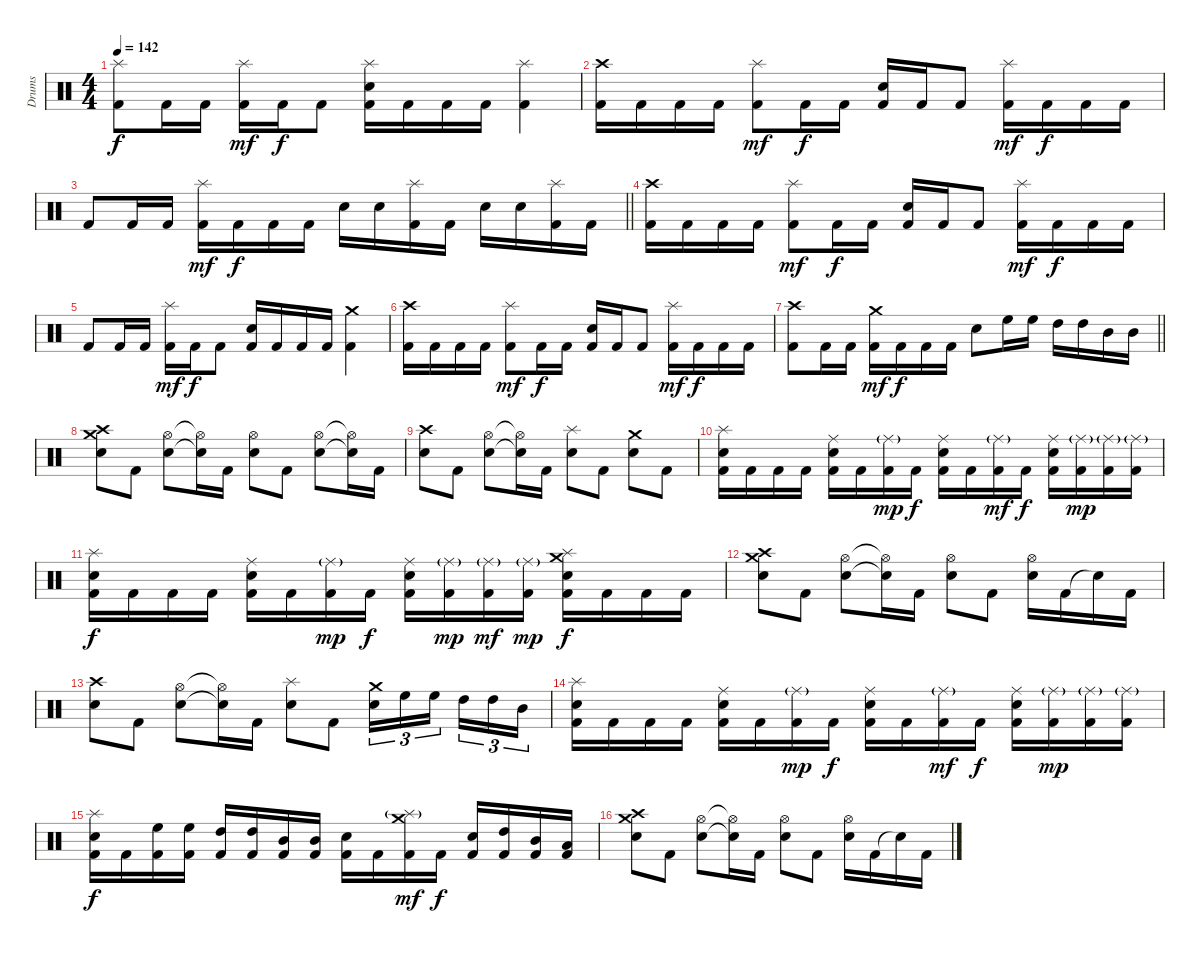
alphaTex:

\track ("Drums" "Drums") {instrument percussion}
\staff {score}
\articulation defaults
\ts (4 4)
\tempo 142
\clef neutral
\ks c
("Splash (hit)" "Kick (hit) 2").8{dy f} "Kick (hit) 2".16 "Kick (hit) 2".16 ("Splash (hit)" "Kick (hit) 2").16{dy mf} "Kick (hit) 2".16{dy f} "Kick (hit) 2".8 ("Splash (hit)" "Electric Snare (hit)" "Kick (hit) 2").16 "Kick (hit) 2".16 "Kick (hit) 2".16 "Kick (hit) 2".16 ("Splash (hit)" "Kick (hit) 2").4 |
("Crash high (hit)" "Kick (hit) 2").16 "Kick (hit) 2".16 "Kick (hit) 2".16 "Kick (hit) 2".16 ("Splash (hit)" "Kick (hit) 2").8{dy mf} "Kick (hit) 2".16{dy f} "Kick (hit) 2".16 ("Electric Snare (hit)" "Kick (hit) 2").16 "Kick (hit) 2".16 "Kick (hit) 2".8 ("Splash (hit)" "Kick (hit) 2").16{dy mf} "Kick (hit) 2".16{dy f} "Kick (hit) 2".16 "Kick (hit) 2".16 |
\barLineRight lightlight "Kick (hit) 2".8 "Kick (hit) 2".16 "Kick (hit) 2".16
("Splash (hit)" "Kick (hit) 2").16{dy mf} "Kick (hit) 2".16{dy f} "Kick (hit) 2".16 "Kick (hit) 2".16 "Electric Snare (hit)".16 "Electric Snare (hit)".16 ("Splash (hit)" "Kick (hit) 2").16 "Kick (hit) 2".16 "Electric Snare (hit)".16 "Electric Snare (hit)".16 ("Splash (hit)" "Kick (hit) 2").16 "Kick (hit) 2".16 |
("Crash high (hit)" "Kick (hit) 2").16 "Kick (hit) 2".16 "Kick (hit) 2".16 "Kick (hit) 2".16 ("Splash (hit)" "Kick (hit) 2").8{dy mf} "Kick (hit) 2".16{dy f} "Kick (hit) 2".16 ("Electric Snare (hit)" "Kick (hit) 2").16 "Kick (hit) 2".16 "Kick (hit) 2".8 ("Splash (hit)" "Kick (hit) 2").16{dy mf} "Kick (hit) 2".16{dy f} "Kick (hit) 2".16 "Kick (hit) 2".16 |
"Kick (hit) 2".8 "Kick (hit) 2".16 "Kick (hit) 2".16 ("Splash (hit)" "Kick (hit) 2").16{dy mf} "Kick (hit) 2".16{dy f} "Kick (hit) 2".8 ("Electric Snare (hit)" "Kick (hit) 2").16 "Kick (hit) 2".16 "Kick (hit) 2".16 "Kick (hit) 2".16 ("Crash medium (hit)" "Kick (hit) 2").4 |
("Crash high (hit)" "Kick (hit) 2").16 "Kick (hit) 2".16 "Kick (hit) 2".16 "Kick (hit) 2".16 ("Splash (hit)" "Kick (hit) 2").8{dy mf} "Kick (hit) 2".16{dy f} "Kick (hit) 2".16 ("Electric Snare (hit)" "Kick (hit) 2").16 "Kick (hit) 2".16 "Kick (hit) 2".8 ("Splash (hit)" "Kick (hit) 2").16{dy mf} "Kick (hit) 2".16{dy f} "Kick (hit) 2".16 "Kick (hit) 2".16 |
\barLineRight lightlight
("Crash high (hit)" "Kick (hit) 2").8 "Kick (hit) 2".16 "Kick (hit) 2".16 ("Crash medium (hit)" "Kick (hit) 2").16{dy mf} "Kick (hit) 2".16{dy f} "Kick (hit) 2".16 "Kick (hit) 2".16 "Electric Snare (hit)".8 "High Floor Tom (hit)".16 "High Floor Tom (hit)".16 "High Tom (hit)".16 "High Tom (hit)".16 "Mid Tom (hit)".16 "Mid Tom (hit)".16 |
("Crash high (hit)" "Crash medium (hit)" "Electric Snare (hit)").8 "Kick (hit) 2".8 ("Hi-Hat (open)" "Electric Snare (hit)").8 ("Hi-Hat (open)"{t} "Snare (hit)"{t}).16 "Kick (hit) 2".16 ("Hi-Hat (open)" "Electric Snare (hit)").8 "Kick (hit) 2".8 ("Hi-Hat (open)" "Electric Snare (hit)").8 ("Hi-Hat (open)"{t} "Snare (hit)"{t}).16 "Kick (hit) 2".16 |
("Crash high (hit)" "Electric Snare (hit)").8 "Kick (hit) 2".8 ("Hi-Hat (open)" "Electric Snare (hit)").8 ("Hi-Hat (open)"{t} "Snare (hit)"{t}).16 "Kick (hit) 2".16 ("Splash (hit)" "Electric Snare (hit)").8 "Kick (hit) 2".8 ("Crash medium (hit)" "Electric Snare (hit)").8 "Kick (hit) 2".8 |
("Splash (hit)" "Electric Snare (hit)" "Kick (hit) 2").16 "Kick (hit) 2".16 "Kick (hit) 2".16 "Kick (hit) 2".16 ("Ride (middle)" "Electric Snare (hit)" "Kick (hit) 2").16 "Kick (hit) 2".16 ("Ride (middle)"{g} "Kick (hit) 2").16{dy mp} "Kick (hit) 2".16{dy f} ("Ride (middle)" "Electric Snare (hit)" "Kick (hit) 2").16 "Kick (hit) 2".16 ("Ride (middle)"{g} "Kick (hit) 2").16{dy mf} "Kick (hit) 2".16{dy f} ("Ride (middle)" "Electric Snare (hit)" "Kick (hit) 2").16 ("Ride (middle)"{g} "Kick (hit) 2").16{dy mp} ("Ride (middle)"{g} "Kick (hit) 2").16 ("Ride (middle)"{g} "Kick (hit) 2").16 |
("Splash (hit)" "Electric Snare (hit)" "Kick (hit) 2").16{dy f} "Kick (hit) 2".16 "Kick (hit) 2".16 "Kick (hit) 2".16 ("Ride (middle)" "Electric Snare (hit)" "Kick (hit) 2").16 "Kick (hit) 2".16 ("Ride (middle)"{g} "Kick (hit) 2").16{dy mp} "Kick (hit) 2".16{dy f} ("Ride (middle)" "Electric Snare (hit)" "Kick (hit) 2").16 ("Ride (middle)"{g} "Kick (hit) 2").16{dy mp} ("Ride (middle)"{g} "Kick (hit) 2").16{dy mf} ("Ride (middle)"{g} "Kick (hit) 2").16{dy mp} ("Crash medium (hit)" "Splash (hit)" "Electric Snare (hit)" "Kick (hit) 2").16{dy f} "Kick (hit) 2".16 "Kick (hit) 2".16 "Kick (hit) 2".16 |
("Crash high (hit)" "Crash medium (hit)" "Electric Snare (hit)").8 "Kick (hit) 2".8 ("Hi-Hat (open)" "Electric Snare (hit)").8 ("Hi-Hat (open)"{t} "Snare (hit)"{t}).16 "Kick (hit) 2".16 ("Hi-Hat (open)" "Electric Snare (hit)").8 "Kick (hit) 2".8 ("Hi-Hat (open)" "Electric Snare (hit)").16 "Kick (hit) 2".16 "Snare (hit)"{t}.16 "Kick (hit) 2".16 |
("Crash high (hit)" "Electric Snare (hit)").8 "Kick (hit) 2".8 ("Hi-Hat (open)" "Electric Snare (hit)").8 ("Hi-Hat (open)"{t} "Snare (hit)"{t}).16 "Kick (hit) 2".16 ("Splash (hit)" "Electric Snare (hit)").8 "Kick (hit) 2".8 ("Crash medium (hit)" "Electric Snare (hit)").16{tu (3 2)} "High Floor Tom (hit)".16{tu (3 2)} "High Floor Tom (hit)".16{tu (3 2)} "High Tom (hit)".16{tu (3 2)} "High Tom (hit)".16{tu (3 2)} "Mid Tom (hit)".16{tu (3 2)} |
("Splash (hit)" "Electric Snare (hit)" "Kick (hit) 2").16 "Kick (hit) 2".16 "Kick (hit) 2".16 "Kick (hit) 2".16 ("Ride (middle)" "Electric Snare (hit)" "Kick (hit) 2").16 "Kick (hit) 2".16 ("Ride (middle)"{g} "Kick (hit) 2").16{dy mp} "Kick (hit) 2".16{dy f} ("Ride (middle)" "Electric Snare (hit)" "Kick (hit) 2").16 "Kick (hit) 2".16 ("Ride (middle)"{g} "Kick (hit) 2").16{dy mf} "Kick (hit) 2".16{dy f} ("Ride (middle)" "Electric Snare (hit)" "Kick (hit) 2").16 ("Ride (middle)"{g} "Kick (hit) 2").16{dy mp} ("Ride (middle)"{g} "Kick (hit) 2").16 ("Ride (middle)"{g} "Kick (hit) 2").16 |
("Splash (hit)" "Electric Snare (hit)" "Kick (hit) 2").16{dy f} "Kick (hit) 2".16 ("High Floor Tom (hit)" "Kick (hit) 2").16 ("High Floor Tom (hit)" "Kick (hit) 2").16 ("High Tom (hit)" "Kick (hit) 2").16 ("High Tom (hit)" "Kick (hit) 2").16 ("Mid Tom (hit)" "Kick (hit) 2").16 ("Mid Tom (hit)" "Kick (hit) 2").16 ("Electric Snare (hit)" "Kick (hit) 2").16 "Kick (hit) 2".16 ("Crash medium (hit)" "Splash (hit)"{g} "Kick (hit) 2").16{dy mf} "Kick (hit) 2".16{dy f} ("Electric Snare (hit)" "Kick (hit) 2").16 ("High Tom (hit)" "Kick (hit) 2").16 ("Mid Tom (hit)" "Kick (hit) 2").16 ("Low Tom (hit)" "Kick (hit) 2").16 |
("Crash high (hit)" "Crash medium (hit)" "Electric Snare (hit)").8 "Kick (hit) 2".8 ("Hi-Hat (open)" "Electric Snare (hit)").8 ("Hi-Hat (open)"{t} "Snare (hit)"{t}).16 "Kick (hit) 2".16 ("Hi-Hat (open)" "Electric Snare (hit)").8 "Kick (hit) 2".8 ("Hi-Hat (open)" "Electric Snare (hit)").16 "Kick (hit) 2".16 "Snare (hit)"{t}.16 "Kick (hit) 2".16
